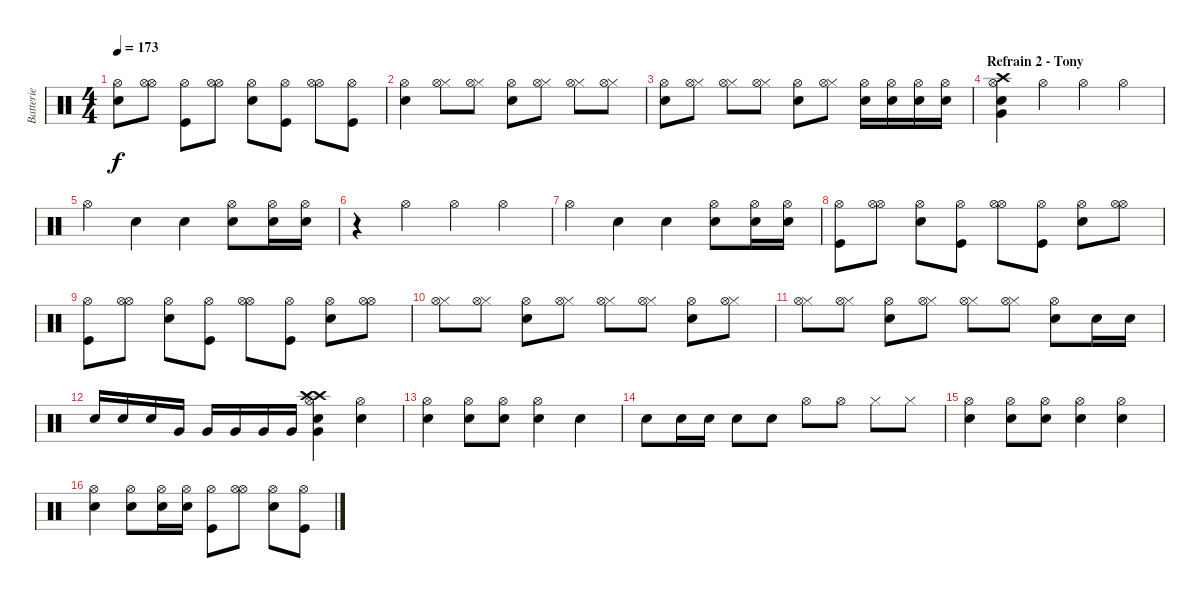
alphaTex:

\track ("Batterie" "Batterie") {instrument percussion}
\staff {score}
\articulation defaults
\ts (4 4)
\tempo 173
\clef neutral
\ks c
("Electric Snare (hit)" "Hi-Hat (open)").8{dy f} ("Hi-Hat (open)" "Hi-Hat (open)").8 ("Kick (hit)" "Hi-Hat (open)").8 ("Hi-Hat (open)" "Hi-Hat (open)").8 ("Electric Snare (hit)" "Hi-Hat (open)").8 ("Kick (hit)" "Hi-Hat (open)").8 ("Hi-Hat (open)" "Hi-Hat (open)").8 ("Kick (hit)" "Hi-Hat (open)").8 |
("Electric Snare (hit)" "Hi-Hat (open)").4 ("Hi-Hat (closed)" "Hi-Hat (open)").8 ("Hi-Hat (closed)" "Hi-Hat (open)").8 ("Electric Snare (hit)" "Hi-Hat (open)").8 ("Hi-Hat (closed)" "Hi-Hat (open)").8 ("Hi-Hat (closed)" "Hi-Hat (open)").8 ("Hi-Hat (closed)" "Hi-Hat (open)").8 |
("Electric Snare (hit)" "Hi-Hat (open)").8 ("Hi-Hat (closed)" "Hi-Hat (open)").8 ("Hi-Hat (closed)" "Hi-Hat (open)").8 ("Hi-Hat (closed)" "Hi-Hat (open)").8 ("Electric Snare (hit)" "Hi-Hat (open)").8 ("Hi-Hat (closed)" "Hi-Hat (open)").8 ("Electric Snare (hit)" "Hi-Hat (open)").16 ("Electric Snare (hit)" "Hi-Hat (open)").16 ("Electric Snare (hit)" "Hi-Hat (open)").16 ("Electric Snare (hit)" "Hi-Hat (open)").16 |
\section ("" "Refrain 2 - Tony")
("Electric Snare (hit)" "Very Low Tom (hit)" "Hi-Hat (open)" "Crash high (hit)").4 "Hi-Hat (open)".4 "Hi-Hat (open)".4 "Hi-Hat (open)".4 |
"Hi-Hat (open)".4 "Electric Snare (hit)".4 "Electric Snare (hit)".4 ("Electric Snare (hit)" "Hi-Hat (open)").8 ("Electric Snare (hit)" "Hi-Hat (open)").16 ("Electric Snare (hit)" "Hi-Hat (open)").16 |
r.4 "Hi-Hat (open)".4 "Hi-Hat (open)".4 "Hi-Hat (open)".4 |
"Hi-Hat (open)".4 "Electric Snare (hit)".4 "Electric Snare (hit)".4 ("Electric Snare (hit)" "Hi-Hat (open)").8 ("Electric Snare (hit)" "Hi-Hat (open)").16 ("Electric Snare (hit)" "Hi-Hat (open)").16 |
("Kick (hit)" "Hi-Hat (open)").8 ("Hi-Hat (open)" "Hi-Hat (open)").8 ("Electric Snare (hit)" "Hi-Hat (open)").8 ("Kick (hit)" "Hi-Hat (open)").8 ("Hi-Hat (open)" "Hi-Hat (open)").8 ("Kick (hit)" "Hi-Hat (open)").8 ("Electric Snare (hit)" "Hi-Hat (open)").8 ("Hi-Hat (open)" "Hi-Hat (open)").8 |
("Kick (hit)" "Hi-Hat (open)").8 ("Hi-Hat (open)" "Hi-Hat (open)").8 ("Electric Snare (hit)" "Hi-Hat (open)").8 ("Kick (hit)" "Hi-Hat (open)").8 ("Hi-Hat (open)" "Hi-Hat (open)").8 ("Kick (hit)" "Hi-Hat (open)").8 ("Electric Snare (hit)" "Hi-Hat (open)").8 ("Hi-Hat (open)" "Hi-Hat (open)").8 |
("Hi-Hat (closed)" "Hi-Hat (open)").8 ("Hi-Hat (closed)" "Hi-Hat (open)").8 ("Electric Snare (hit)" "Hi-Hat (open)").8 ("Hi-Hat (closed)" "Hi-Hat (open)").8 ("Hi-Hat (closed)" "Hi-Hat (open)").8 ("Hi-Hat (closed)" "Hi-Hat (open)").8 ("Electric Snare (hit)" "Hi-Hat (open)").8 ("Hi-Hat (closed)" "Hi-Hat (open)").8 |
("Hi-Hat (closed)" "Hi-Hat (open)").8 ("Hi-Hat (closed)" "Hi-Hat (open)").8 ("Electric Snare (hit)" "Hi-Hat (open)").8 ("Hi-Hat (closed)" "Hi-Hat (open)").8 ("Hi-Hat (closed)" "Hi-Hat (open)").8 ("Hi-Hat (closed)" "Hi-Hat (open)").8 ("Electric Snare (hit)" "Hi-Hat (open)").8 "Electric Snare (hit)".16 "Electric Snare (hit)".16 |
"Electric Snare (hit)".16 "Electric Snare (hit)".16 "Electric Snare (hit)".16 "Very Low Tom (hit)".16 "Very Low Tom (hit)".16 "Very Low Tom (hit)".16 "Very Low Tom (hit)".16 "Very Low Tom (hit)".16 ("Crash high (hit)" "Crash high (hit)" "Hi-Hat (open)" "Very Low Tom (hit)" "Electric Snare (hit)").4 ("Electric Snare (hit)" "Hi-Hat (open)").4 |
("Electric Snare (hit)" "Hi-Hat (open)").4 ("Electric Snare (hit)" "Hi-Hat (open)").8 ("Electric Snare (hit)" "Hi-Hat (open)").8 ("Electric Snare (hit)" "Hi-Hat (open)").4 "Electric Snare (hit)".4 |
"Electric Snare (hit)".8 "Electric Snare (hit)".16 "Electric Snare (hit)".16 "Electric Snare (hit)".8 "Electric Snare (hit)".8 "Hi-Hat (open)".8 "Hi-Hat (open)".8 "Hi-Hat (closed)".8 "Hi-Hat (closed)".8 |
("Electric Snare (hit)" "Hi-Hat (open)").4 ("Electric Snare (hit)" "Hi-Hat (open)").8 ("Electric Snare (hit)" "Hi-Hat (open)").8 ("Electric Snare (hit)" "Hi-Hat (open)").4 ("Electric Snare (hit)" "Hi-Hat (open)").4 |
("Electric Snare (hit)" "Hi-Hat (open)").4 ("Electric Snare (hit)" "Hi-Hat (open)").8 ("Electric Snare (hit)" "Hi-Hat (open)").16 ("Electric Snare (hit)" "Hi-Hat (open)").16 ("Kick (hit)" "Hi-Hat (open)").8 ("Hi-Hat (open)" "Hi-Hat (open)").8 ("Electric Snare (hit)" "Hi-Hat (open)").8 ("Kick (hit)" "Hi-Hat (open)").8
